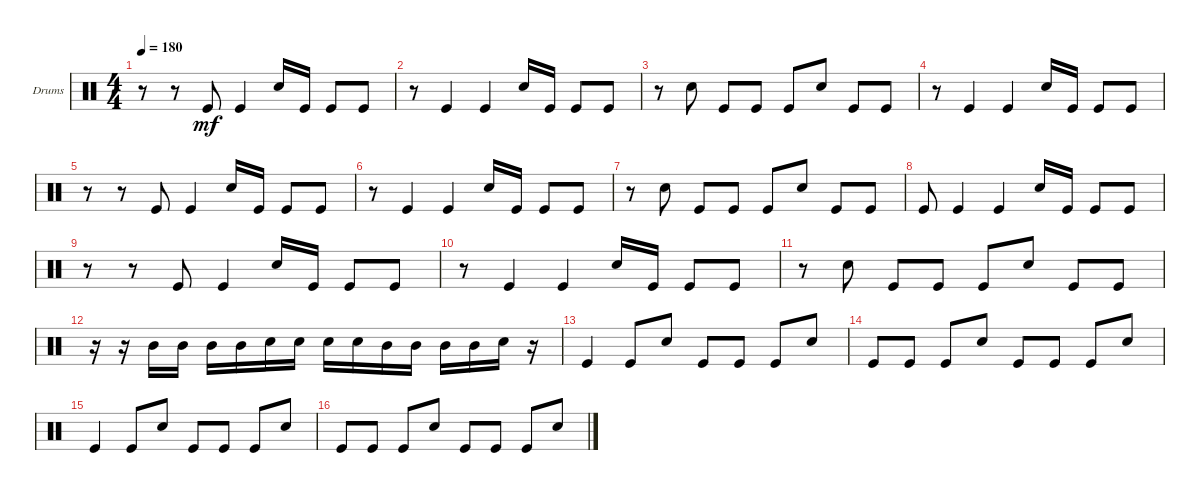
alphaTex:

\defaultSystemsLayout 4
\bracketExtendMode groupsimilarinstruments
\firstSystemTrackNameOrientation horizontal
\otherSystemsTrackNameOrientation horizontal
\track ("Drumkit" "Drums") {instrument percussion}
\staff {score}
\articulation defaults
\ts (4 4)
\tempo 180
\clef neutral
\ks c
r.8{dy mf} r.8 "Kick (hit)".8 "Kick (hit)".4 "Snare (hit) 2".16 "Kick (hit)".16 "Kick (hit)".8 "Kick (hit)".8 |
r.8 "Kick (hit)".4 "Kick (hit)".4 "Snare (hit) 2".16 "Kick (hit)".16 "Kick (hit)".8 "Kick (hit)".8 |
r.8 "Snare (hit) 2".8 "Kick (hit)".8 "Kick (hit)".8 "Kick (hit)".8 "Snare (hit) 2".8 "Kick (hit)".8 "Kick (hit)".8 |
r.8 "Kick (hit)".4 "Kick (hit)".4 "Snare (hit) 2".16 "Kick (hit)".16 "Kick (hit)".8 "Kick (hit)".8 |
r.8 r.8 "Kick (hit)".8 "Kick (hit)".4 "Snare (hit) 2".16 "Kick (hit)".16 "Kick (hit)".8 "Kick (hit)".8 |
r.8 "Kick (hit)".4 "Kick (hit)".4 "Snare (hit) 2".16 "Kick (hit)".16 "Kick (hit)".8 "Kick (hit)".8 |
r.8 "Snare (hit) 2".8 "Kick (hit)".8 "Kick (hit)".8 "Kick (hit)".8 "Snare (hit) 2".8 "Kick (hit)".8 "Kick (hit)".8 |
"Kick (hit)".8 "Kick (hit)".4 "Kick (hit)".4 "Snare (hit) 2".16 "Kick (hit)".16 "Kick (hit)".8 "Kick (hit)".8 |
r.8 r.8 "Kick (hit)".8 "Kick (hit)".4 "Snare (hit) 2".16 "Kick (hit)".16 "Kick (hit)".8 "Kick (hit)".8 |
r.8 "Kick (hit)".4 "Kick (hit)".4 "Snare (hit) 2".16 "Kick (hit)".16 "Kick (hit)".8 "Kick (hit)".8 |
r.8 "Snare (hit) 2".8 "Kick (hit)".8 "Kick (hit)".8 "Kick (hit)".8 "Snare (hit) 2".8 "Kick (hit)".8 "Kick (hit)".8 |
r.16 r.16 "Mid Tom (hit)".16 "Mid Tom (hit)".16 "Mid Tom (hit)".16 "Mid Tom (hit)".16 "Snare (hit) 2".16 "Snare (hit) 2".16 "Snare (hit) 2".16 "Snare (hit) 2".16 "Mid Tom (hit)".16 "Mid Tom (hit)".16 "Mid Tom (hit)".16 "Mid Tom (hit)".16 "Snare (hit) 2".16 r.16 |
"Kick (hit)".4 "Kick (hit)".8 "Snare (hit) 2".8 "Kick (hit)".8 "Kick (hit)".8 "Kick (hit)".8 "Snare (hit) 2".8 |
"Kick (hit)".8 "Kick (hit)".8 "Kick (hit)".8 "Snare (hit) 2".8 "Kick (hit)".8 "Kick (hit)".8 "Kick (hit)".8 "Snare (hit) 2".8 |
"Kick (hit)".4 "Kick (hit)".8 "Snare (hit) 2".8 "Kick (hit)".8 "Kick (hit)".8 "Kick (hit)".8 "Snare (hit) 2".8 |
"Kick (hit)".8 "Kick (hit)".8 "Kick (hit)".8 "Snare (hit) 2".8 "Kick (hit)".8 "Kick (hit)".8 "Kick (hit)".8 "Snare (hit) 2".8
